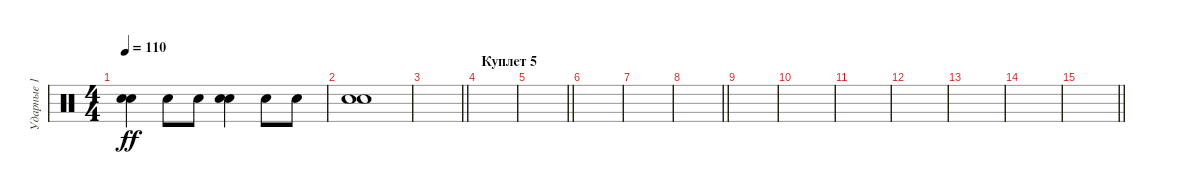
\track ("Ударные 1" "Ударные 1") {instrument percussion}
\staff {score}
\articulation defaults
\ts (4 4)
\tempo 110
\clef neutral
\ks c
("Snare (hit) 2" "Electric Snare (hit)").4{dy ff} "Electric Snare (hit)".8 "Electric Snare (hit)".8 ("Snare (hit) 2" "Electric Snare (hit)").4 "Electric Snare (hit)".8 "Electric Snare (hit)".8 |
("Snare (hit) 2" "Electric Snare (hit)").1 |
\barLineRight lightlight
|
\section ("" "Куплет 5")
|
\barLineRight lightlight
|
|
|
\barLineRight lightlight
|
|
|
|
|
|
|
\barLineRight lightlight
